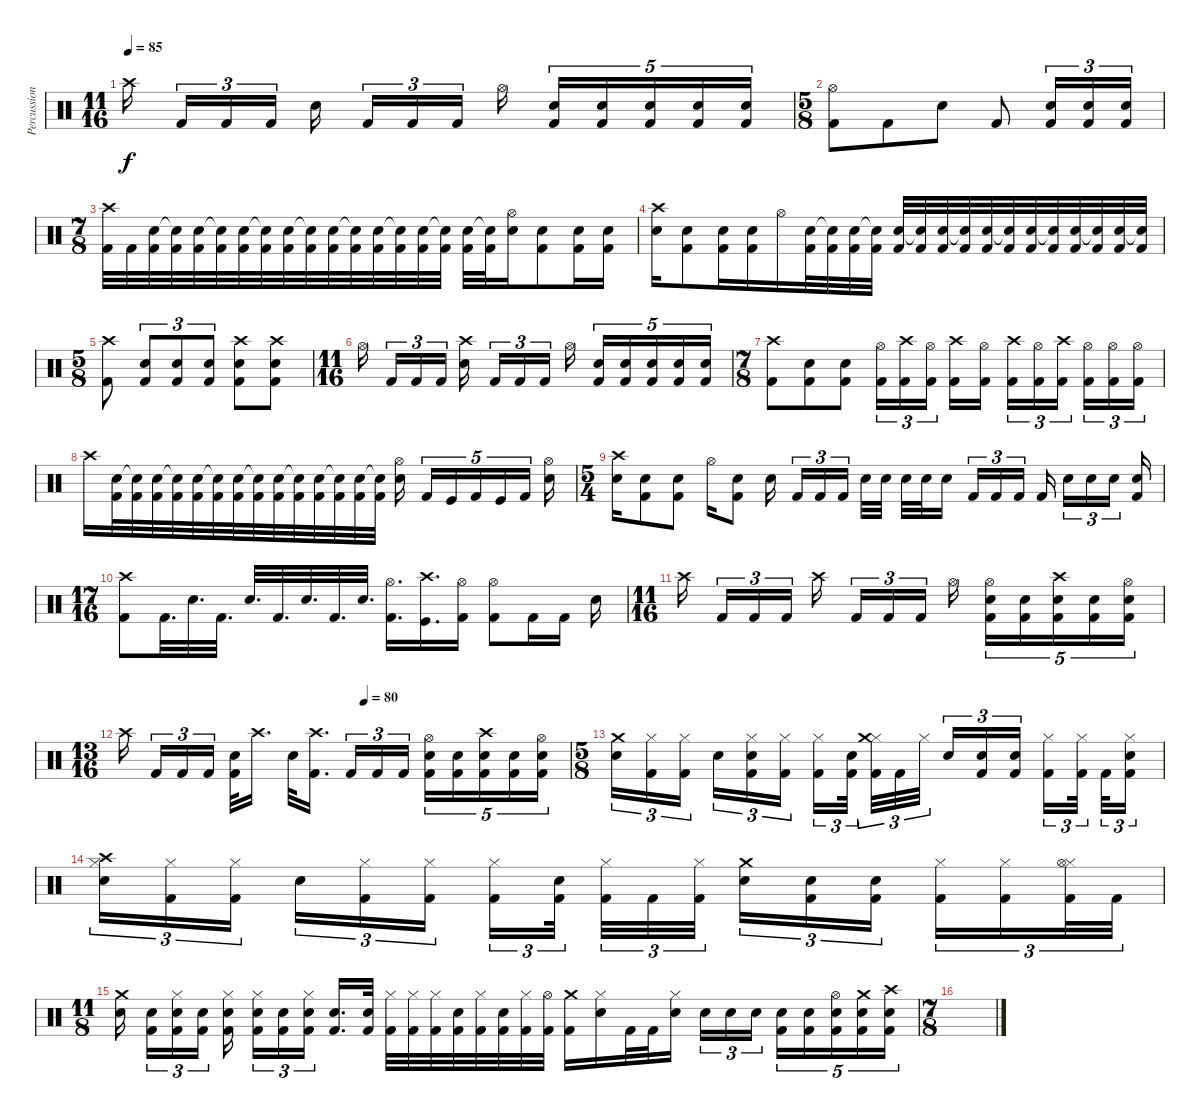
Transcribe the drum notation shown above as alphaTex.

\track ("Percussion" "Percussion") {instrument percussion}
\staff {score}
\articulation defaults
\ts (11 16)
\tempo 85
\clef neutral
\ks c "Crash high (hit)".16{dy f} "Kick (hit) 2".16{tu (3 2)} "Kick (hit) 2".16{tu (3 2)} "Kick (hit) 2".16{tu (3 2)} "Electric Snare (hit)".16 "Kick (hit) 2".16{tu (3 2)} "Kick (hit) 2".16{tu (3 2)} "Kick (hit) 2".16{tu (3 2)} "Hi-Hat (open)".16
("Electric Snare (hit)" "Kick (hit) 2").16{tu (5 4)} ("Electric Snare (hit)" "Kick (hit) 2").16{tu (5 4)} ("Electric Snare (hit)" "Kick (hit) 2").16{tu (5 4)} ("Electric Snare (hit)" "Kick (hit) 2").16{tu (5 4)} ("Electric Snare (hit)" "Kick (hit) 2").16{tu (5 4)} |
\ts (5 8)
("Kick (hit) 2" "Hi-Hat (open)").8 "Kick (hit) 2".8 "Electric Snare (hit)".8 "Kick (hit) 2".8 ("Kick (hit) 2" "Electric Snare (hit)").16{tu (3 2)} ("Kick (hit) 2" "Electric Snare (hit)").16{tu (3 2)} ("Kick (hit) 2" "Electric Snare (hit)").16{tu (3 2)} |
\ts (7 8)
("Kick (hit) 2" "Crash high (hit)").32 "Kick (hit) 2".32 ("Kick (hit) 2" "Electric Snare (hit)").32 ("Kick (hit) 2" "Snare (hit)"{t}).32 ("Kick (hit) 2" "Electric Snare (hit)").32 ("Kick (hit) 2" "Snare (hit)"{t}).32 ("Kick (hit) 2" "Electric Snare (hit)").32 ("Kick (hit) 2" "Snare (hit)"{t}).32 ("Kick (hit) 2" "Electric Snare (hit)").32 ("Kick (hit) 2" "Snare (hit)"{t}).32 ("Kick (hit) 2" "Electric Snare (hit)").32 ("Kick (hit) 2" "Snare (hit)"{t}).32 ("Kick (hit) 2" "Electric Snare (hit)").32 ("Kick (hit) 2" "Snare (hit)"{t}).32 ("Kick (hit) 2" "Electric Snare (hit)").32 ("Kick (hit) 2" "Snare (hit)"{t}).32 ("Kick (hit) 2" "Electric Snare (hit)").32 ("Kick (hit) 2" "Snare (hit)"{t}).32 ("Hi-Hat (open)" "Electric Snare (hit)").16 ("Kick (hit) 2" "Electric Snare (hit)").8 ("Kick (hit) 2" "Electric Snare (hit)").16 ("Kick (hit) 2" "Electric Snare (hit)").16 |
("Crash high (hit)" "Electric Snare (hit)").16 ("Kick (hit) 2" "Electric Snare (hit)").8 ("Kick (hit) 2" "Electric Snare (hit)").16 ("Kick (hit) 2" "Electric Snare (hit)").16 "Hi-Hat (open)".16 ("Kick (hit) 2" "Electric Snare (hit)").32 ("Kick (hit) 2" "Snare (hit)"{t}).32 ("Kick (hit) 2" "Electric Snare (hit)").32 ("Kick (hit) 2" "Snare (hit)"{t}).32 ("Kick (hit) 2" "Electric Snare (hit)").32 ("Kick (hit) 2" "Snare (hit)"{t}).32 ("Kick (hit) 2" "Electric Snare (hit)").32 ("Kick (hit) 2" "Snare (hit)"{t}).32 ("Kick (hit) 2" "Electric Snare (hit)").32 ("Kick (hit) 2" "Snare (hit)"{t}).32 ("Kick (hit) 2" "Electric Snare (hit)").32 ("Kick (hit) 2" "Snare (hit)"{t}).32 ("Kick (hit) 2" "Electric Snare (hit)").32 ("Kick (hit) 2" "Snare (hit)"{t}).32 ("Kick (hit) 2" "Electric Snare (hit)").32 ("Kick (hit) 2" "Snare (hit)"{t}).32 |
\ts (5 8)
("Kick (hit) 2" "Crash high (hit)").8 ("Kick (hit) 2" "Electric Snare (hit)").8{tu (3 2)} ("Kick (hit) 2" "Electric Snare (hit)").8{tu (3 2)} ("Kick (hit) 2" "Electric Snare (hit)").8{tu (3 2)} ("Kick (hit) 2" "Electric Snare (hit)" "Crash high (hit)").8 ("Kick (hit) 2" "Electric Snare (hit)" "Crash high (hit)").8 |
\ts (11 16)
"Hi-Hat (open)".16 "Kick (hit) 2".16{tu (3 2)} "Kick (hit) 2".16{tu (3 2)} "Kick (hit) 2".16{tu (3 2)} ("Electric Snare (hit)" "Crash high (hit)").16 "Kick (hit) 2".16{tu (3 2)} "Kick (hit) 2".16{tu (3 2)} "Kick (hit) 2".16{tu (3 2)} "Hi-Hat (open)".16 ("Electric Snare (hit)" "Kick (hit) 2").16{tu (5 4)} ("Electric Snare (hit)" "Kick (hit) 2").16{tu (5 4)} ("Electric Snare (hit)" "Kick (hit) 2").16{tu (5 4)} ("Electric Snare (hit)" "Kick (hit) 2").16{tu (5 4)} ("Electric Snare (hit)" "Kick (hit) 2").16{tu (5 4)} |
\ts (7 8)
("Kick (hit) 2" "Crash high (hit)").8 ("Kick (hit) 2" "Electric Snare (hit)").8 ("Kick (hit) 2" "Electric Snare (hit)").8 ("Kick (hit) 2" "Hi-Hat (open)").16{tu (3 2)} ("Kick (hit) 2" "Crash high (hit)").16{tu (3 2)} ("Kick (hit) 2" "Hi-Hat (open)").16{tu (3 2)} ("Kick (hit) 2" "Crash high (hit)").16 ("Kick (hit) 2" "Hi-Hat (open)").16 ("Kick (hit) 2" "Crash high (hit)").16{tu (3 2)} ("Kick (hit) 2" "Hi-Hat (open)").16{tu (3 2)} ("Kick (hit) 2" "Crash high (hit)").16{tu (3 2)} ("Kick (hit) 2" "Hi-Hat (open)").16{tu (3 2)} ("Kick (hit) 2" "Hi-Hat (open)").16{tu (3 2)} ("Kick (hit) 2" "Hi-Hat (open)").16{tu (3 2)} |
"Crash high (hit)".16 ("Kick (hit) 2" "Electric Snare (hit)").32 ("Kick (hit) 2" "Snare (hit)"{t}).32 ("Kick (hit) 2" "Electric Snare (hit)").32 ("Kick (hit) 2" "Snare (hit)"{t}).32 ("Kick (hit) 2" "Electric Snare (hit)").32 ("Kick (hit) 2" "Snare (hit)"{t}).32 ("Kick (hit) 2" "Electric Snare (hit)").32 ("Kick (hit) 2" "Snare (hit)"{t}).32 ("Kick (hit) 2" "Electric Snare (hit)").32 ("Kick (hit) 2" "Snare (hit)"{t}).32 ("Kick (hit) 2" "Electric Snare (hit)").32 ("Kick (hit) 2" "Snare (hit)"{t}).32 ("Kick (hit) 2" "Electric Snare (hit)").32 ("Kick (hit) 2" "Snare (hit)"{t}).32 ("Hi-Hat (open)" "Electric Snare (hit)").16{beam splitsecondary} "Kick (hit) 2".16{tu (5 4)} "Kick (hit)".16{tu (5 4)} "Kick (hit) 2".16{tu (5 4)} "Kick (hit)".16{tu (5 4)} "Kick (hit) 2".16{tu (5 4)} ("Electric Snare (hit)" "Hi-Hat (open)").16 |
\ts (5 4)
("Crash high (hit)" "Electric Snare (hit)").16 ("Kick (hit) 2" "Electric Snare (hit)").8 ("Kick (hit) 2" "Electric Snare (hit)").8 "Hi-Hat (open)".16 ("Kick (hit) 2" "Electric Snare (hit)").8 "Electric Snare (hit)".16{beam splitsecondary} "Kick (hit) 2".16{tu (3 2)} "Kick (hit) 2".16{tu (3 2)} "Kick (hit) 2".16{tu (3 2) beam splitsecondary} "Electric Snare (hit)".32 "Electric Snare (hit)".32 "Electric Snare (hit)".32 "Electric Snare (hit)".32 "Electric Snare (hit)".16{beam splitsecondary} "Kick (hit) 2".16{tu (3 2)} "Kick (hit) 2".16{tu (3 2)} "Kick (hit) 2".16{tu (3 2)} "Kick (hit) 2".16{beam splitsecondary} "Electric Snare (hit)".16{tu (3 2)} "Electric Snare (hit)".16{tu (3 2)} "Electric Snare (hit)".16{tu (3 2) beam splitsecondary} ("Kick (hit) 2" "Electric Snare (hit)").16 |
\ts (17 16)
("Kick (hit) 2" "Crash high (hit)").8 "Kick (hit) 2".32{d} "Electric Snare (hit)".32{d} "Kick (hit) 2".32{d} "Electric Snare (hit)".32{d} "Kick (hit) 2".32{d} "Electric Snare (hit)".32{d} "Kick (hit) 2".32{d} "Electric Snare (hit)".32{d} ("Kick (hit) 2" "Hi-Hat (open)").16{d} ("Kick (hit)" "Crash high (hit)").16{d} ("Kick (hit) 2" "Hi-Hat (open)").16 ("Hi-Hat (open)" "Kick (hit) 2").8 "Kick (hit) 2".16 "Kick (hit) 2".16 "Electric Snare (hit)".16 |
\ts (11 16)
"Crash high (hit)".16 "Kick (hit) 2".16{tu (3 2)} "Kick (hit) 2".16{tu (3 2)} "Kick (hit) 2".16{tu (3 2)} "Crash high (hit)".16 "Kick (hit) 2".16{tu (3 2)} "Kick (hit) 2".16{tu (3 2)} "Kick (hit) 2".16{tu (3 2)} "Hi-Hat (open)".16 ("Electric Snare (hit)" "Kick (hit) 2" "Hi-Hat (open)").16{tu (5 4)} ("Electric Snare (hit)" "Kick (hit) 2").16{tu (5 4)} ("Electric Snare (hit)" "Kick (hit) 2" "Crash high (hit)").16{tu (5 4)} ("Electric Snare (hit)" "Kick (hit) 2").16{tu (5 4)} ("Electric Snare (hit)" "Kick (hit) 2" "Hi-Hat (open)").16{tu (5 4)} |
\ts (13 16)
\tempo (80 0.5384615384615384)
"Crash high (hit)".16 "Kick (hit) 2".16{tu (3 2)} "Kick (hit) 2".16{tu (3 2)} "Kick (hit) 2".16{tu (3 2)} ("Kick (hit) 2" "Electric Snare (hit)").32 "Crash high (hit)".16{d} "Electric Snare (hit)".32 ("Kick (hit) 2" "Crash high (hit)").16{d} "Kick (hit) 2".16{tu (3 2)} "Kick (hit) 2".16{tu (3 2)} "Kick (hit) 2".16{tu (3 2)} ("Electric Snare (hit)" "Kick (hit) 2" "Hi-Hat (open)").16{tu (5 4)} ("Electric Snare (hit)" "Kick (hit) 2").16{tu (5 4)} ("Electric Snare (hit)" "Kick (hit) 2" "Crash high (hit)").16{tu (5 4)} ("Electric Snare (hit)" "Kick (hit) 2").16{tu (5 4)} ("Electric Snare (hit)" "Kick (hit) 2" "Hi-Hat (open)").16{tu (5 4)} |
\ts (5 8)
("Electric Snare (hit)" "Crash medium (hit)").16{tu (3 2)} ("Hi-Hat (closed)" "Kick (hit) 2").16{tu (3 2)} ("Hi-Hat (closed)" "Kick (hit) 2").16{tu (3 2)} "Electric Snare (hit)".16{tu (3 2)} ("Hi-Hat (closed)" "Electric Snare (hit)" "Kick (hit) 2").16{tu (3 2)} ("Hi-Hat (closed)" "Kick (hit) 2").16{tu (3 2)} ("Hi-Hat (closed)" "Kick (hit) 2").16{tu (3 2)} ("Electric Snare (hit)" "Kick (hit) 2").32{tu (3 2) beam splitsecondary} ("Hi-Hat (closed)" "Kick (hit) 2" "Crash medium (hit)").32{tu (3 2)} "Kick (hit) 2".32{tu (3 2)} "Hi-Hat (closed)".32{tu (3 2)} "Electric Snare (hit)".16{tu (3 2)} ("Electric Snare (hit)" "Kick (hit) 2").16{tu (3 2)} ("Electric Snare (hit)" "Kick (hit) 2").16{tu (3 2)} ("Hi-Hat (closed)" "Kick (hit) 2").16{tu (3 2)} ("Hi-Hat (closed)" "Kick (hit) 2").32{tu (3 2) beam splitsecondary} "Kick (hit) 2".32{tu (3 2)} ("Hi-Hat (closed)" "Electric Snare (hit)" "Kick (hit) 2").16{tu (3 2)} |
("Hi-Hat (closed)" "Electric Snare (hit)" "Crash high (hit)").16{tu (3 2)} ("Hi-Hat (closed)" "Kick (hit) 2").16{tu (3 2)} ("Hi-Hat (closed)" "Kick (hit) 2").16{tu (3 2)} "Electric Snare (hit)".16{tu (3 2)} ("Hi-Hat (closed)" "Kick (hit) 2").16{tu (3 2)} ("Hi-Hat (closed)" "Kick (hit) 2").16{tu (3 2)} ("Hi-Hat (closed)" "Kick (hit) 2").16{tu (3 2)} ("Electric Snare (hit)" "Kick (hit) 2").32{tu (3 2) beam splitsecondary} ("Hi-Hat (closed)" "Kick (hit) 2").32{tu (3 2)} "Kick (hit) 2".32{tu (3 2)} ("Hi-Hat (closed)" "Kick (hit) 2").32{tu (3 2)} ("Electric Snare (hit)" "Crash medium (hit)").16{tu (3 2)} ("Electric Snare (hit)" "Kick (hit) 2").16{tu (3 2)} ("Electric Snare (hit)" "Kick (hit) 2").16{tu (3 2)} ("Hi-Hat (closed)" "Kick (hit) 2").16{tu (3 2)} ("Hi-Hat (closed)" "Kick (hit) 2").16{tu (3 2)} ("Hi-Hat (closed)" "Kick (hit) 2" "Hi-Hat (open)").32{tu (3 2)} "Kick (hit) 2".32{tu (3 2)} |
\ts (11 8)
("Electric Snare (hit)" "Crash medium (hit)").16{beam splitsecondary} ("Kick (hit) 2" "Electric Snare (hit)").16{tu (3 2)} ("Kick (hit) 2" "Electric Snare (hit)" "Hi-Hat (closed)").16{tu (3 2)} ("Kick (hit) 2" "Electric Snare (hit)").16{tu (3 2)} ("Kick (hit) 2" "Electric Snare (hit)" "Hi-Hat (closed)").16 ("Kick (hit) 2" "Electric Snare (hit)" "Hi-Hat (closed)").16{tu (3 2)} ("Kick (hit) 2" "Electric Snare (hit)").16{tu (3 2)} ("Kick (hit) 2" "Electric Snare (hit)" "Hi-Hat (closed)").16{tu (3 2)} ("Kick (hit) 2" "Electric Snare (hit)").16{d} ("Electric Snare (hit)" "Kick (hit) 2").32 ("Hi-Hat (closed)" "Kick (hit) 2").32 ("Hi-Hat (closed)" "Kick (hit) 2").32 ("Hi-Hat (closed)" "Kick (hit) 2").32 ("Electric Snare (hit)" "Kick (hit) 2").32 ("Hi-Hat (closed)" "Kick (hit) 2").32 ("Electric Snare (hit)" "Kick (hit) 2").32 ("Hi-Hat (closed)" "Kick (hit) 2").32 ("Hi-Hat (open)" "Kick (hit) 2").32 ("Crash medium (hit)" "Kick (hit) 2").16 ("Electric Snare (hit)" "Hi-Hat (closed)").16 "Kick (hit) 2".32 "Kick (hit) 2".32 ("Electric Snare (hit)" "Hi-Hat (closed)").16 "Electric Snare (hit)".16{tu (3 2)} "Electric Snare (hit)".16{tu (3 2)} "Electric Snare (hit)".16{tu (3 2)} ("Electric Snare (hit)" "Kick (hit) 2").16{tu (5 4)} ("Electric Snare (hit)" "Kick (hit) 2").16{tu (5 4)} ("Electric Snare (hit)" "Kick (hit) 2" "Hi-Hat (open)").16{tu (5 4)} ("Electric Snare (hit)" "Kick (hit) 2" "Crash medium (hit)").16{tu (5 4)} ("Electric Snare (hit)" "Kick (hit) 2" "Crash high (hit)").16{tu (5 4)} |
\ts (7 8)
